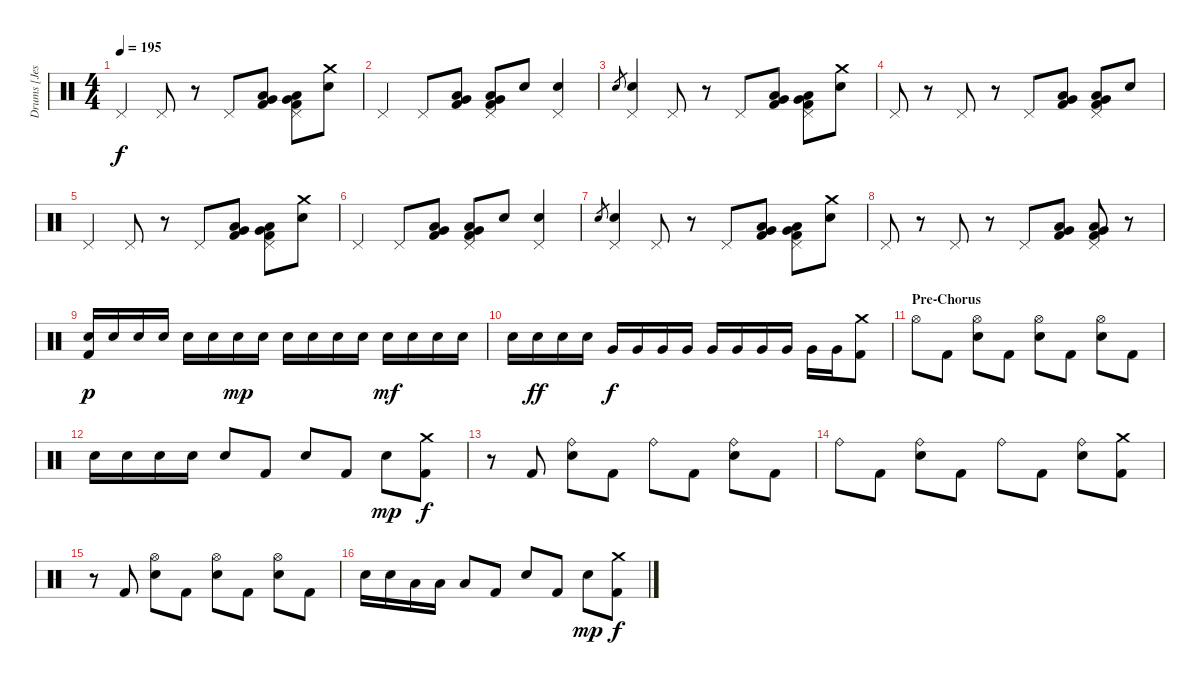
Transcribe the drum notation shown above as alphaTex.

\track ("Drums [Jesse Ingelevics]" "Drums [Jes") {instrument percussion}
\staff {score}
\articulation defaults
\ts (4 4)
\tempo 195
\clef neutral
\ks c "Pedal Hi-Hat (hit)".4{dy f} "Pedal Hi-Hat (hit)".8
r.8 "Pedal Hi-Hat (hit)".8 ("Very Low Tom (hit)" "Low Floor Tom (hit)" "Kick (hit) 2").8 ("Pedal Hi-Hat (hit)" "Very Low Tom (hit)" "Low Floor Tom (hit)" "Kick (hit) 2").8 ("Crash medium (hit)" "Electric Snare (hit)").8 |
"Pedal Hi-Hat (hit)".4 "Pedal Hi-Hat (hit)".8 ("Very Low Tom (hit)" "Low Floor Tom (hit)" "Kick (hit) 2").8 ("Pedal Hi-Hat (hit)" "Very Low Tom (hit)" "Low Floor Tom (hit)" "Kick (hit) 2").8 "Electric Snare (hit)".8 ("Pedal Hi-Hat (hit)" "Electric Snare (hit)").4 |
"Electric Snare (hit)".8{gr} ("Pedal Hi-Hat (hit)" "Electric Snare (hit)").4 "Pedal Hi-Hat (hit)".8 r.8 "Pedal Hi-Hat (hit)".8 ("Very Low Tom (hit)" "Low Floor Tom (hit)" "Kick (hit) 2").8 ("Pedal Hi-Hat (hit)" "Very Low Tom (hit)" "Low Floor Tom (hit)" "Kick (hit) 2").8 ("Crash medium (hit)" "Electric Snare (hit)").8 |
"Pedal Hi-Hat (hit)".8 r.8 "Pedal Hi-Hat (hit)".8 r.8 "Pedal Hi-Hat (hit)".8 ("Very Low Tom (hit)" "Low Floor Tom (hit)" "Kick (hit) 2").8 ("Pedal Hi-Hat (hit)" "Very Low Tom (hit)" "Low Floor Tom (hit)" "Kick (hit) 2").8 "Electric Snare (hit)".8 |
"Pedal Hi-Hat (hit)".4 "Pedal Hi-Hat (hit)".8 r.8 "Pedal Hi-Hat (hit)".8 ("Very Low Tom (hit)" "Low Floor Tom (hit)" "Kick (hit) 2").8 ("Pedal Hi-Hat (hit)" "Very Low Tom (hit)" "Low Floor Tom (hit)" "Kick (hit) 2").8 ("Crash medium (hit)" "Electric Snare (hit)").8 |
"Pedal Hi-Hat (hit)".4 "Pedal Hi-Hat (hit)".8 ("Very Low Tom (hit)" "Low Floor Tom (hit)" "Kick (hit) 2").8 ("Pedal Hi-Hat (hit)" "Very Low Tom (hit)" "Low Floor Tom (hit)" "Kick (hit) 2").8 "Electric Snare (hit)".8 ("Pedal Hi-Hat (hit)" "Electric Snare (hit)").4 |
"Electric Snare (hit)".8{gr} ("Pedal Hi-Hat (hit)" "Electric Snare (hit)").4 "Pedal Hi-Hat (hit)".8 r.8 "Pedal Hi-Hat (hit)".8 ("Very Low Tom (hit)" "Low Floor Tom (hit)" "Kick (hit) 2").8 ("Pedal Hi-Hat (hit)" "Very Low Tom (hit)" "Low Floor Tom (hit)" "Kick (hit) 2").8 ("Crash medium (hit)" "Electric Snare (hit)").8 |
"Pedal Hi-Hat (hit)".8 r.8 "Pedal Hi-Hat (hit)".8 r.8 "Pedal Hi-Hat (hit)".8 ("Very Low Tom (hit)" "Low Floor Tom (hit)" "Kick (hit) 2").8 ("Pedal Hi-Hat (hit)" "Very Low Tom (hit)" "Low Floor Tom (hit)" "Kick (hit) 2").8 r.8 |
("Electric Snare (hit)" "Kick (hit) 2").16{dy p} "Electric Snare (hit)".16 "Electric Snare (hit)".16 "Electric Snare (hit)".16 "Electric Snare (hit)".16 "Electric Snare (hit)".16 "Electric Snare (hit)".16{dy mp} "Electric Snare (hit)".16 "Electric Snare (hit)".16 "Electric Snare (hit)".16 "Electric Snare (hit)".16 "Electric Snare (hit)".16 "Electric Snare (hit)".16{dy mf} "Electric Snare (hit)".16 "Electric Snare (hit)".16 "Electric Snare (hit)".16 |
"Electric Snare (hit)".16 "Electric Snare (hit)".16{dy ff} "Electric Snare (hit)".16 "Electric Snare (hit)".16 "Very Low Tom (hit)".16{dy f} "Very Low Tom (hit)".16 "Very Low Tom (hit)".16 "Very Low Tom (hit)".16 "Very Low Tom (hit)".16 "Very Low Tom (hit)".16 "Very Low Tom (hit)".16 "Very Low Tom (hit)".16 "Very Low Tom (hit)".16 "Very Low Tom (hit)".16 ("Crash medium (hit)" "Kick (hit) 2").8 |
\section ("" "Pre-Chorus")
"Hi-Hat (open)".8 "Kick (hit) 2".8 ("Hi-Hat (open)" "Electric Snare (hit)").8 "Kick (hit) 2".8 ("Hi-Hat (open)" "Electric Snare (hit)").8 "Kick (hit) 2".8 ("Hi-Hat (open)" "Electric Snare (hit)").8 "Kick (hit) 2".8 |
"Electric Snare (hit)".16 "Electric Snare (hit)".16 "Electric Snare (hit)".16 "Electric Snare (hit)".16 "Electric Snare (hit)".8 "Kick (hit) 2".8 "Electric Snare (hit)".8 "Kick (hit) 2".8 "Electric Snare (hit)".8{dy mp} ("Crash medium (hit)" "Kick (hit) 2").8{dy f} |
r.8 "Kick (hit) 2".8 ("Ride (bell)" "Electric Snare (hit)").8 "Kick (hit) 2".8 "Ride (bell)".8 "Kick (hit) 2".8 ("Ride (bell)" "Electric Snare (hit)").8 "Kick (hit) 2".8 |
"Ride (bell)".8 "Kick (hit) 2".8 ("Ride (bell)" "Electric Snare (hit)").8 "Kick (hit) 2".8 "Ride (bell)".8 "Kick (hit) 2".8 ("Ride (bell)" "Electric Snare (hit)").8 ("Crash medium (hit)" "Kick (hit) 2").8 |
r.8 "Kick (hit) 2".8 ("Hi-Hat (open)" "Electric Snare (hit)").8 "Kick (hit) 2".8 ("Hi-Hat (open)" "Electric Snare (hit)").8 "Kick (hit) 2".8 ("Hi-Hat (open)" "Electric Snare (hit)").8 "Kick (hit) 2".8 |
"Electric Snare (hit)".16 "Electric Snare (hit)".16 "Low Tom (hit)".16 "Low Tom (hit)".16 "Low Tom (hit)".8 "Kick (hit) 2".8 "Electric Snare (hit)".8 "Kick (hit) 2".8 "Electric Snare (hit)".8{dy mp} ("Crash medium (hit)" "Kick (hit) 2").8{dy f}
